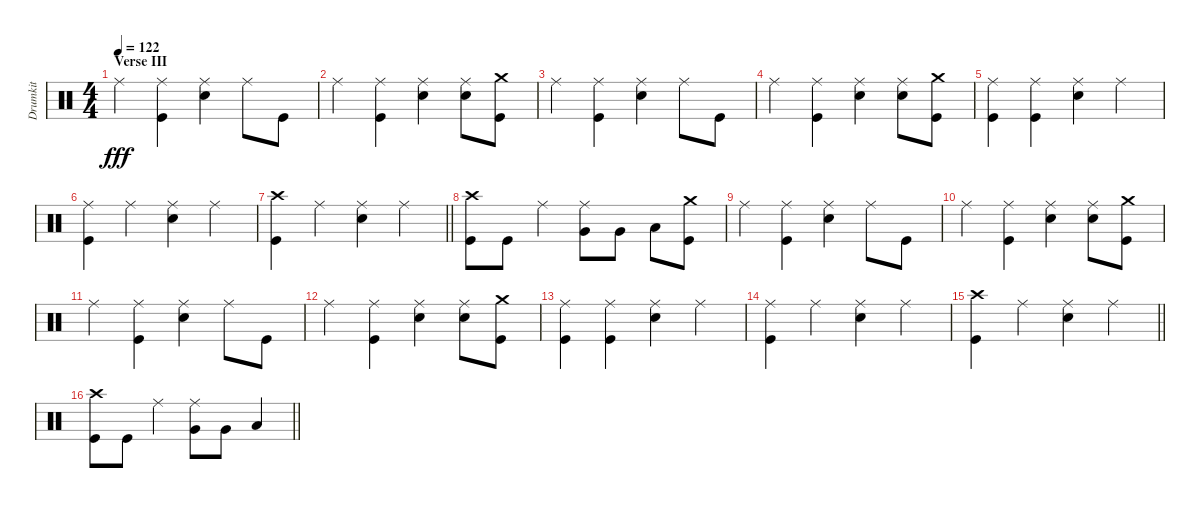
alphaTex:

\track ("Drumkit" "Drumkit") {mute instrument percussion}
\staff {score}
\articulation defaults
\ts (4 4)
\section ("" "Verse III")
\tempo 122
\clef neutral
\ks c "Ride (middle)".4{dy fff}
("Ride (middle)" "Kick (hit)").4 ("Ride (middle)" "Snare (hit) 2").4 "Ride (middle)".8 "Kick (hit)".8 |
"Ride (middle)".4 ("Ride (middle)" "Kick (hit)").4 ("Ride (middle)" "Snare (hit) 2").4 ("Ride (middle)" "Snare (hit) 2").8 ("Kick (hit)" "Crash medium (hit)").8 |
"Ride (middle)".4 ("Ride (middle)" "Kick (hit)").4 ("Ride (middle)" "Snare (hit) 2").4 "Ride (middle)".8 "Kick (hit)".8 |
"Ride (middle)".4 ("Ride (middle)" "Kick (hit)").4 ("Ride (middle)" "Snare (hit) 2").4 ("Ride (middle)" "Snare (hit) 2").8 ("Kick (hit)" "Crash medium (hit)").8 |
("Ride (middle)" "Kick (hit)").4 ("Ride (middle)" "Kick (hit)").4 ("Ride (middle)" "Snare (hit) 2").4 "Ride (middle)".4 |
("Ride (middle)" "Kick (hit)").4 "Ride (middle)".4 ("Ride (middle)" "Snare (hit) 2").4 "Ride (middle)".4 |
\barLineRight lightlight
("Kick (hit)" "Crash high (hit)").4 "Ride (middle)".4 ("Ride (middle)" "Snare (hit) 2").4 "Ride (middle)".4 |
("Kick (hit)" "Crash high (hit)").8 "Kick (hit)".8 "Ride (middle)".4 ("Ride (middle)" "Very Low Tom (hit)").8 "Very Low Tom (hit)".8 "Low Tom (hit)".8 ("Crash medium (hit)" "Kick (hit)").8 |
"Ride (middle)".4 ("Ride (middle)" "Kick (hit)").4 ("Ride (middle)" "Snare (hit) 2").4 "Ride (middle)".8 "Kick (hit)".8 |
"Ride (middle)".4 ("Ride (middle)" "Kick (hit)").4 ("Ride (middle)" "Snare (hit) 2").4 ("Ride (middle)" "Snare (hit) 2").8 ("Kick (hit)" "Crash medium (hit)").8 |
"Ride (middle)".4 ("Ride (middle)" "Kick (hit)").4 ("Ride (middle)" "Snare (hit) 2").4 "Ride (middle)".8 "Kick (hit)".8 |
"Ride (middle)".4 ("Ride (middle)" "Kick (hit)").4 ("Ride (middle)" "Snare (hit) 2").4 ("Ride (middle)" "Snare (hit) 2").8 ("Kick (hit)" "Crash medium (hit)").8 |
("Ride (middle)" "Kick (hit)").4 ("Ride (middle)" "Kick (hit)").4 ("Ride (middle)" "Snare (hit) 2").4 "Ride (middle)".4 |
("Ride (middle)" "Kick (hit)").4 "Ride (middle)".4 ("Ride (middle)" "Snare (hit) 2").4 "Ride (middle)".4 |
\barLineRight lightlight
("Kick (hit)" "Crash high (hit)").4 "Ride (middle)".4 ("Ride (middle)" "Snare (hit) 2").4 "Ride (middle)".4 |
\barLineRight lightlight
("Kick (hit)" "Crash high (hit)").8 "Kick (hit)".8 "Ride (middle)".4 ("Ride (middle)" "Very Low Tom (hit)").8 "Very Low Tom (hit)".8 "Low Tom (hit)".4
